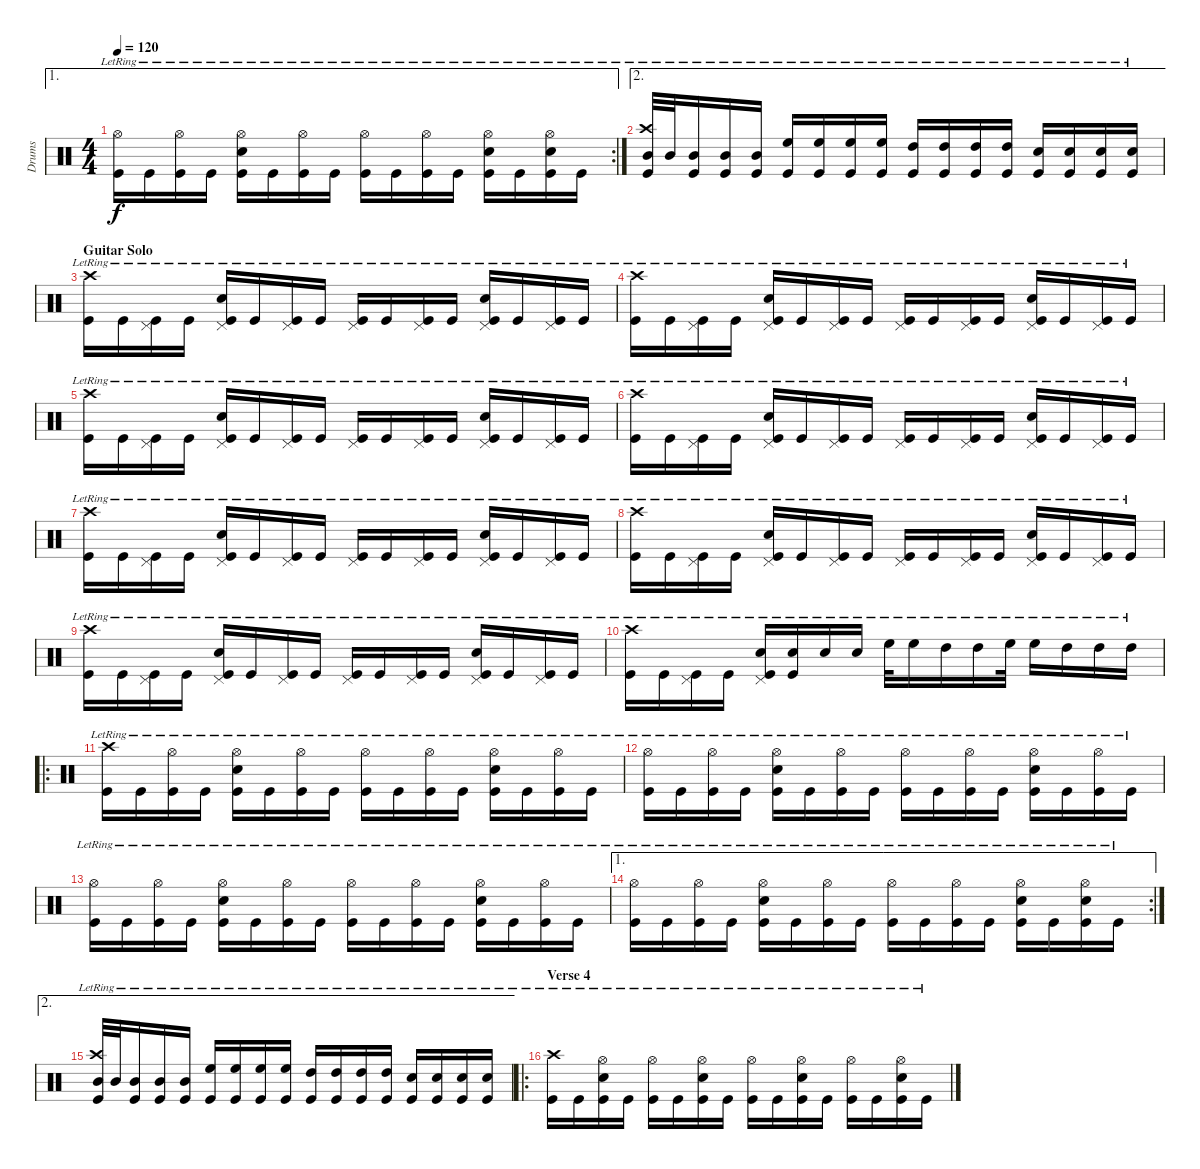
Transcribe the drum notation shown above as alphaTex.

\track ("Drums" "Drums") {instrument percussion}
\staff {score}
\articulation defaults
\ae 1
\rc 2
\ts (4 4)
\tempo 120
\clef neutral
\ks c
("Hi-Hat (open)"{lr} "Kick (hit)"{lr}).16{dy f} "Kick (hit)"{lr}.16 ("Hi-Hat (open)"{lr} "Kick (hit)"{lr}).16 "Kick (hit)"{lr}.16 ("Hi-Hat (open)"{lr} "Snare (hit) 2"{lr} "Kick (hit)"{lr}).16 "Kick (hit)"{lr}.16 ("Hi-Hat (open)"{lr} "Kick (hit)"{lr}).16 "Kick (hit)"{lr}.16 ("Hi-Hat (open)"{lr} "Kick (hit)"{lr}).16 "Kick (hit)"{lr}.16 ("Hi-Hat (open)"{lr} "Kick (hit)"{lr}).16 "Kick (hit)"{lr}.16 ("Hi-Hat (open)"{lr} "Snare (hit) 2"{lr} "Kick (hit)"{lr}).16 "Kick (hit)"{lr}.16 ("Hi-Hat (open)"{lr} "Snare (hit) 2"{lr} "Kick (hit)"{lr}).16 "Kick (hit)"{lr}.16 |
\ae 2
("Crash high (hit)"{lr} "Mid Tom (hit)"{lr} "Kick (hit)"{lr}).32 "Mid Tom (hit)"{lr}.32 ("Mid Tom (hit)"{lr} "Kick (hit)"{lr}).16 ("Mid Tom (hit)"{lr} "Kick (hit)"{lr}).16 ("Mid Tom (hit)"{lr} "Kick (hit)"{lr}).16 ("High Floor Tom (hit)"{lr} "Kick (hit)"{lr}).16 ("High Floor Tom (hit)"{lr} "Kick (hit)"{lr}).16 ("High Floor Tom (hit)"{lr} "Kick (hit)"{lr}).16 ("High Floor Tom (hit)"{lr} "Kick (hit)"{lr}).16 ("High Tom (hit)"{lr} "Kick (hit)"{lr}).16 ("High Tom (hit)"{lr} "Kick (hit)"{lr}).16 ("High Tom (hit)"{lr} "Kick (hit)"{lr}).16 ("High Tom (hit)"{lr} "Kick (hit)"{lr}).16 ("Snare (hit) 2"{lr} "Kick (hit)"{lr}).16 ("Snare (hit) 2"{lr} "Kick (hit)"{lr}).16 ("Snare (hit) 2"{lr} "Kick (hit)"{lr}).16 ("Snare (hit) 2"{lr} "Kick (hit)"{lr}).16 |
\section ("" "Guitar Solo")
("Crash high (hit)"{lr} "Kick (hit)"{lr}).16 "Kick (hit)"{lr}.16 ("Pedal Hi-Hat (hit)"{lr} "Kick (hit)"{lr}).16 "Kick (hit)"{lr}.16 ("Pedal Hi-Hat (hit)"{lr} "Snare (hit) 2"{lr} "Kick (hit)"{lr}).16 "Kick (hit)"{lr}.16 ("Pedal Hi-Hat (hit)"{lr} "Kick (hit)"{lr}).16 "Kick (hit)"{lr}.16 ("Pedal Hi-Hat (hit)"{lr} "Kick (hit)"{lr}).16 "Kick (hit)"{lr}.16 ("Pedal Hi-Hat (hit)"{lr} "Kick (hit)"{lr}).16 "Kick (hit)"{lr}.16 ("Pedal Hi-Hat (hit)"{lr} "Snare (hit) 2"{lr} "Kick (hit)"{lr}).16 "Kick (hit)"{lr}.16 ("Pedal Hi-Hat (hit)"{lr} "Kick (hit)"{lr}).16 "Kick (hit)"{lr}.16 |
("Crash high (hit)"{lr} "Kick (hit)"{lr}).16 "Kick (hit)"{lr}.16 ("Pedal Hi-Hat (hit)"{lr} "Kick (hit)"{lr}).16 "Kick (hit)"{lr}.16 ("Pedal Hi-Hat (hit)"{lr} "Snare (hit) 2"{lr} "Kick (hit)"{lr}).16 "Kick (hit)"{lr}.16 ("Pedal Hi-Hat (hit)"{lr} "Kick (hit)"{lr}).16 "Kick (hit)"{lr}.16 ("Pedal Hi-Hat (hit)"{lr} "Kick (hit)"{lr}).16 "Kick (hit)"{lr}.16 ("Pedal Hi-Hat (hit)"{lr} "Kick (hit)"{lr}).16 "Kick (hit)"{lr}.16 ("Pedal Hi-Hat (hit)"{lr} "Snare (hit) 2"{lr} "Kick (hit)"{lr}).16 "Kick (hit)"{lr}.16 ("Pedal Hi-Hat (hit)"{lr} "Kick (hit)"{lr}).16 "Kick (hit)"{lr}.16 |
("Crash high (hit)"{lr} "Kick (hit)"{lr}).16 "Kick (hit)"{lr}.16 ("Pedal Hi-Hat (hit)"{lr} "Kick (hit)"{lr}).16 "Kick (hit)"{lr}.16 ("Pedal Hi-Hat (hit)"{lr} "Snare (hit) 2"{lr} "Kick (hit)"{lr}).16 "Kick (hit)"{lr}.16 ("Pedal Hi-Hat (hit)"{lr} "Kick (hit)"{lr}).16 "Kick (hit)"{lr}.16 ("Pedal Hi-Hat (hit)"{lr} "Kick (hit)"{lr}).16 "Kick (hit)"{lr}.16 ("Pedal Hi-Hat (hit)"{lr} "Kick (hit)"{lr}).16 "Kick (hit)"{lr}.16 ("Pedal Hi-Hat (hit)"{lr} "Snare (hit) 2"{lr} "Kick (hit)"{lr}).16 "Kick (hit)"{lr}.16 ("Pedal Hi-Hat (hit)"{lr} "Kick (hit)"{lr}).16 "Kick (hit)"{lr}.16 |
("Crash high (hit)"{lr} "Kick (hit)"{lr}).16 "Kick (hit)"{lr}.16 ("Pedal Hi-Hat (hit)"{lr} "Kick (hit)"{lr}).16 "Kick (hit)"{lr}.16 ("Pedal Hi-Hat (hit)"{lr} "Snare (hit) 2"{lr} "Kick (hit)"{lr}).16 "Kick (hit)"{lr}.16 ("Pedal Hi-Hat (hit)"{lr} "Kick (hit)"{lr}).16 "Kick (hit)"{lr}.16 ("Pedal Hi-Hat (hit)"{lr} "Kick (hit)"{lr}).16 "Kick (hit)"{lr}.16 ("Pedal Hi-Hat (hit)"{lr} "Kick (hit)"{lr}).16 "Kick (hit)"{lr}.16 ("Pedal Hi-Hat (hit)"{lr} "Snare (hit) 2"{lr} "Kick (hit)"{lr}).16 "Kick (hit)"{lr}.16 ("Pedal Hi-Hat (hit)"{lr} "Kick (hit)"{lr}).16 "Kick (hit)"{lr}.16 |
("Crash high (hit)"{lr} "Kick (hit)"{lr}).16 "Kick (hit)"{lr}.16 ("Pedal Hi-Hat (hit)"{lr} "Kick (hit)"{lr}).16 "Kick (hit)"{lr}.16 ("Pedal Hi-Hat (hit)"{lr} "Snare (hit) 2"{lr} "Kick (hit)"{lr}).16 "Kick (hit)"{lr}.16 ("Pedal Hi-Hat (hit)"{lr} "Kick (hit)"{lr}).16 "Kick (hit)"{lr}.16 ("Pedal Hi-Hat (hit)"{lr} "Kick (hit)"{lr}).16 "Kick (hit)"{lr}.16 ("Pedal Hi-Hat (hit)"{lr} "Kick (hit)"{lr}).16 "Kick (hit)"{lr}.16 ("Pedal Hi-Hat (hit)"{lr} "Snare (hit) 2"{lr} "Kick (hit)"{lr}).16 "Kick (hit)"{lr}.16 ("Pedal Hi-Hat (hit)"{lr} "Kick (hit)"{lr}).16 "Kick (hit)"{lr}.16 |
("Crash high (hit)"{lr} "Kick (hit)"{lr}).16 "Kick (hit)"{lr}.16 ("Pedal Hi-Hat (hit)"{lr} "Kick (hit)"{lr}).16 "Kick (hit)"{lr}.16 ("Pedal Hi-Hat (hit)"{lr} "Snare (hit) 2"{lr} "Kick (hit)"{lr}).16 "Kick (hit)"{lr}.16 ("Pedal Hi-Hat (hit)"{lr} "Kick (hit)"{lr}).16 "Kick (hit)"{lr}.16 ("Pedal Hi-Hat (hit)"{lr} "Kick (hit)"{lr}).16 "Kick (hit)"{lr}.16 ("Pedal Hi-Hat (hit)"{lr} "Kick (hit)"{lr}).16 "Kick (hit)"{lr}.16 ("Pedal Hi-Hat (hit)"{lr} "Snare (hit) 2"{lr} "Kick (hit)"{lr}).16 "Kick (hit)"{lr}.16 ("Pedal Hi-Hat (hit)"{lr} "Kick (hit)"{lr}).16 "Kick (hit)"{lr}.16 |
("Crash high (hit)"{lr} "Kick (hit)"{lr}).16 "Kick (hit)"{lr}.16 ("Pedal Hi-Hat (hit)"{lr} "Kick (hit)"{lr}).16 "Kick (hit)"{lr}.16 ("Pedal Hi-Hat (hit)"{lr} "Snare (hit) 2"{lr} "Kick (hit)"{lr}).16 "Kick (hit)"{lr}.16 ("Pedal Hi-Hat (hit)"{lr} "Kick (hit)"{lr}).16 "Kick (hit)"{lr}.16 ("Pedal Hi-Hat (hit)"{lr} "Kick (hit)"{lr}).16 "Kick (hit)"{lr}.16 ("Pedal Hi-Hat (hit)"{lr} "Kick (hit)"{lr}).16 "Kick (hit)"{lr}.16 ("Pedal Hi-Hat (hit)"{lr} "Snare (hit) 2"{lr} "Kick (hit)"{lr}).16 "Kick (hit)"{lr}.16 ("Pedal Hi-Hat (hit)"{lr} "Kick (hit)"{lr}).16 "Kick (hit)"{lr}.16 |
("Crash high (hit)"{lr} "Kick (hit)"{lr}).16 "Kick (hit)"{lr}.16 ("Pedal Hi-Hat (hit)"{lr} "Kick (hit)"{lr}).16 "Kick (hit)"{lr}.16 ("Pedal Hi-Hat (hit)"{lr} "Snare (hit) 2"{lr} "Kick (hit)"{lr}).16 ("Snare (hit) 2"{lr} "Kick (hit)"{lr}).16 "Snare (hit) 2"{lr}.16 "Snare (hit) 2"{lr}.16 "High Floor Tom (hit)"{lr}.32 "High Floor Tom (hit)"{lr}.16 "High Tom (hit)"{lr}.16 "High Tom (hit)"{lr}.16 "High Floor Tom (hit)"{lr}.32 "High Floor Tom (hit)"{lr}.16 "High Tom (hit)"{lr}.16 "High Tom (hit)"{lr}.16 "High Tom (hit)"{lr}.16 |
\ro
("Crash high (hit)"{lr} "Kick (hit)"{lr}).16 "Kick (hit)"{lr}.16 ("Hi-Hat (open)"{lr} "Kick (hit)"{lr}).16 "Kick (hit)"{lr}.16 ("Hi-Hat (open)"{lr} "Snare (hit) 2"{lr} "Kick (hit)"{lr}).16 "Kick (hit)"{lr}.16 ("Hi-Hat (open)"{lr} "Kick (hit)"{lr}).16 "Kick (hit)"{lr}.16 ("Hi-Hat (open)"{lr} "Kick (hit)"{lr}).16 "Kick (hit)"{lr}.16 ("Hi-Hat (open)"{lr} "Kick (hit)"{lr}).16 "Kick (hit)"{lr}.16 ("Hi-Hat (open)"{lr} "Snare (hit) 2"{lr} "Kick (hit)"{lr}).16 "Kick (hit)"{lr}.16 ("Hi-Hat (open)"{lr} "Kick (hit)"{lr}).16 "Kick (hit)"{lr}.16 |
("Hi-Hat (open)"{lr} "Kick (hit)"{lr}).16 "Kick (hit)"{lr}.16 ("Hi-Hat (open)"{lr} "Kick (hit)"{lr}).16 "Kick (hit)"{lr}.16 ("Hi-Hat (open)"{lr} "Snare (hit) 2"{lr} "Kick (hit)"{lr}).16 "Kick (hit)"{lr}.16 ("Hi-Hat (open)"{lr} "Kick (hit)"{lr}).16 "Kick (hit)"{lr}.16 ("Hi-Hat (open)"{lr} "Kick (hit)"{lr}).16 "Kick (hit)"{lr}.16 ("Hi-Hat (open)"{lr} "Kick (hit)"{lr}).16 "Kick (hit)"{lr}.16 ("Hi-Hat (open)"{lr} "Snare (hit) 2"{lr} "Kick (hit)"{lr}).16 "Kick (hit)"{lr}.16 ("Hi-Hat (open)"{lr} "Kick (hit)"{lr}).16 "Kick (hit)"{lr}.16 |
("Hi-Hat (open)"{lr} "Kick (hit)"{lr}).16 "Kick (hit)"{lr}.16 ("Hi-Hat (open)"{lr} "Kick (hit)"{lr}).16 "Kick (hit)"{lr}.16 ("Hi-Hat (open)"{lr} "Snare (hit) 2"{lr} "Kick (hit)"{lr}).16 "Kick (hit)"{lr}.16 ("Hi-Hat (open)"{lr} "Kick (hit)"{lr}).16 "Kick (hit)"{lr}.16 ("Hi-Hat (open)"{lr} "Kick (hit)"{lr}).16 "Kick (hit)"{lr}.16 ("Hi-Hat (open)"{lr} "Kick (hit)"{lr}).16 "Kick (hit)"{lr}.16 ("Hi-Hat (open)"{lr} "Snare (hit) 2"{lr} "Kick (hit)"{lr}).16 "Kick (hit)"{lr}.16 ("Hi-Hat (open)"{lr} "Kick (hit)"{lr}).16 "Kick (hit)"{lr}.16 |
\ae 1
\rc 2
("Hi-Hat (open)"{lr} "Kick (hit)"{lr}).16 "Kick (hit)"{lr}.16 ("Hi-Hat (open)"{lr} "Kick (hit)"{lr}).16 "Kick (hit)"{lr}.16 ("Hi-Hat (open)"{lr} "Snare (hit) 2"{lr} "Kick (hit)"{lr}).16 "Kick (hit)"{lr}.16 ("Hi-Hat (open)"{lr} "Kick (hit)"{lr}).16 "Kick (hit)"{lr}.16 ("Hi-Hat (open)"{lr} "Kick (hit)"{lr}).16 "Kick (hit)"{lr}.16 ("Hi-Hat (open)"{lr} "Kick (hit)"{lr}).16 "Kick (hit)"{lr}.16 ("Hi-Hat (open)"{lr} "Snare (hit) 2"{lr} "Kick (hit)"{lr}).16 "Kick (hit)"{lr}.16 ("Hi-Hat (open)"{lr} "Snare (hit) 2"{lr} "Kick (hit)"{lr}).16 "Kick (hit)"{lr}.16 |
\ae 2
("Crash high (hit)"{lr} "Mid Tom (hit)"{lr} "Kick (hit)"{lr}).32 "Mid Tom (hit)"{lr}.32 ("Mid Tom (hit)"{lr} "Kick (hit)"{lr}).16 ("Mid Tom (hit)"{lr} "Kick (hit)"{lr}).16 ("Mid Tom (hit)"{lr} "Kick (hit)"{lr}).16 ("High Floor Tom (hit)"{lr} "Kick (hit)"{lr}).16 ("High Floor Tom (hit)"{lr} "Kick (hit)"{lr}).16 ("High Floor Tom (hit)"{lr} "Kick (hit)"{lr}).16 ("High Floor Tom (hit)"{lr} "Kick (hit)"{lr}).16 ("High Tom (hit)"{lr} "Kick (hit)"{lr}).16 ("High Tom (hit)"{lr} "Kick (hit)"{lr}).16 ("High Tom (hit)"{lr} "Kick (hit)"{lr}).16 ("High Tom (hit)"{lr} "Kick (hit)"{lr}).16 ("Snare (hit) 2"{lr} "Kick (hit)"{lr}).16 ("Snare (hit) 2"{lr} "Kick (hit)"{lr}).16 ("Snare (hit) 2"{lr} "Kick (hit)"{lr}).16 ("Snare (hit) 2"{lr} "Kick (hit)"{lr}).16 |
\ro
\section ("" "Verse 4")
("Crash high (hit)"{lr} "Kick (hit)"{lr}).16 "Kick (hit)"{lr}.16 ("Hi-Hat (open)"{lr} "Snare (hit) 2"{lr} "Kick (hit)"{lr}).16 "Kick (hit)"{lr}.16 ("Hi-Hat (open)"{lr} "Kick (hit)"{lr}).16 "Kick (hit)"{lr}.16 ("Hi-Hat (open)"{lr} "Snare (hit) 2"{lr} "Kick (hit)"{lr}).16 "Kick (hit)"{lr}.16 ("Hi-Hat (open)"{lr} "Kick (hit)"{lr}).16 "Kick (hit)"{lr}.16 ("Hi-Hat (open)"{lr} "Snare (hit) 2"{lr} "Kick (hit)"{lr}).16 "Kick (hit)"{lr}.16 ("Hi-Hat (open)"{lr} "Kick (hit)"{lr}).16 "Kick (hit)"{lr}.16 ("Hi-Hat (open)"{lr} "Snare (hit) 2"{lr} "Kick (hit)"{lr}).16 "Kick (hit)"{lr}.16
